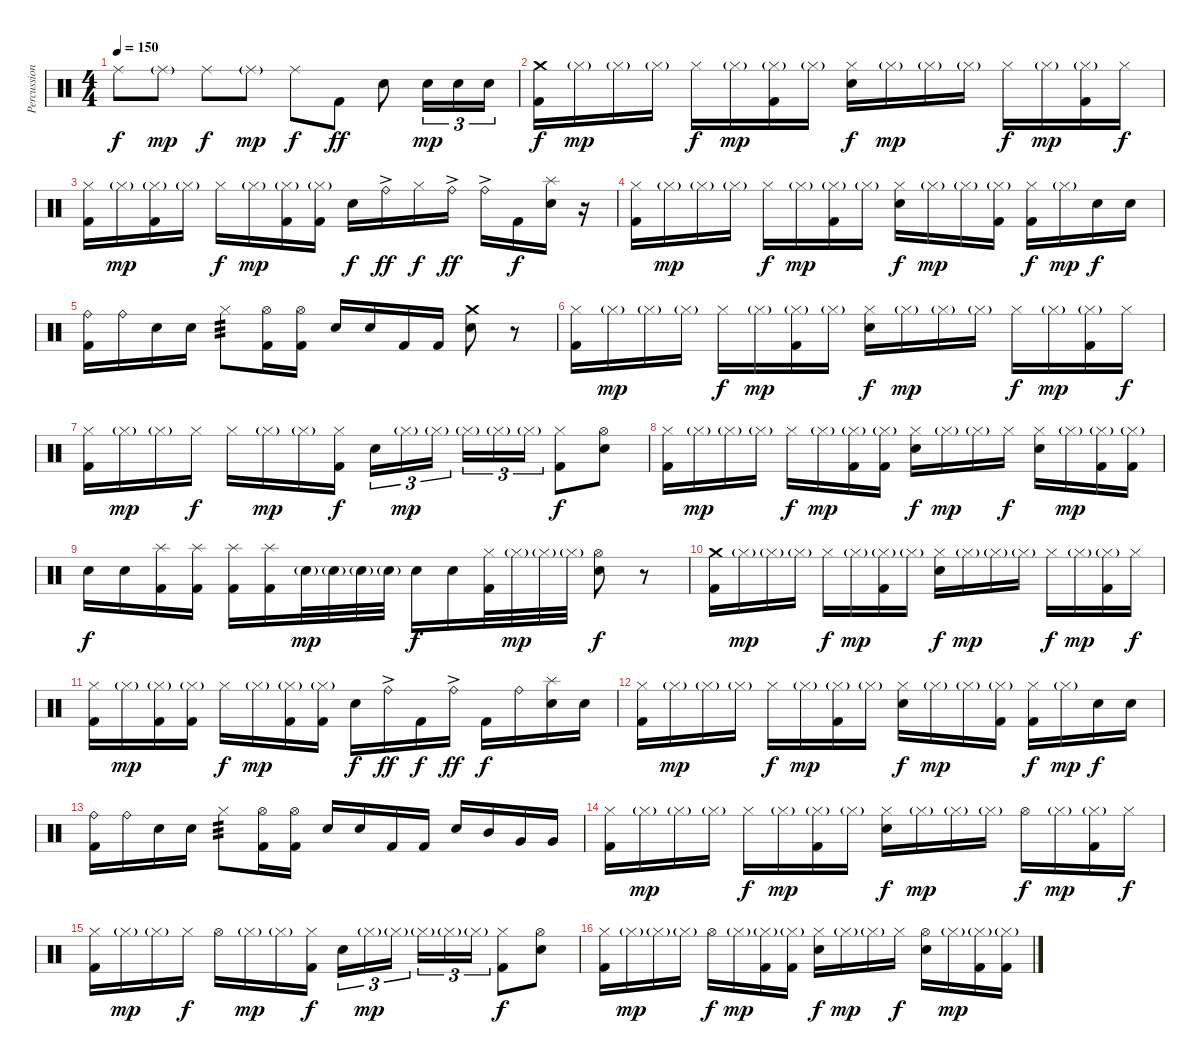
\track ("Percussion" "Percussion") {instrument percussion}
\staff {score}
\articulation defaults
\ts (4 4)
\tempo 150
\clef neutral
\ks c "Ride (middle)".8{dy f} "Ride (middle)"{g}.8{dy mp} "Ride (middle)".8{dy f} "Ride (middle)"{g}.8{dy mp} "Ride (middle)".8{dy f} "Kick (hit) 2".8{dy ff} "Electric Snare (hit)".8 "Electric Snare (hit)".16{tu (3 2) dy mp} "Electric Snare (hit)".16{tu (3 2)} "Electric Snare (hit)".16{tu (3 2)}
|
("Crash medium (hit)" "Kick (hit) 2").16{dy f} "Hi-Hat (closed)"{g}.16{dy mp} "Hi-Hat (closed)"{g}.16 "Hi-Hat (closed)"{g}.16 "Hi-Hat (closed)".16{dy f} "Hi-Hat (closed)"{g}.16{dy mp} ("Hi-Hat (closed)"{g} "Kick (hit) 2").16 "Hi-Hat (closed)"{g}.16 ("Hi-Hat (closed)" "Electric Snare (hit)").16{dy f} "Hi-Hat (closed)"{g}.16{dy mp} "Hi-Hat (closed)"{g}.16 "Hi-Hat (closed)"{g}.16 "Hi-Hat (closed)".16{dy f} "Hi-Hat (closed)"{g}.16{dy mp} ("Hi-Hat (closed)"{g} "Kick (hit) 2").16 "Hi-Hat (closed)".16{dy f} |
("Hi-Hat (closed)" "Kick (hit) 2").16 "Hi-Hat (closed)"{g}.16{dy mp} ("Hi-Hat (closed)"{g} "Kick (hit) 2").16 "Hi-Hat (closed)"{g}.16 "Hi-Hat (closed)".16{dy f} "Hi-Hat (closed)"{g}.16{dy mp} ("Hi-Hat (closed)"{g} "Kick (hit) 2").16 ("Hi-Hat (closed)"{g} "Kick (hit) 2").16 "Electric Snare (hit)".16{dy f} "Ride (bell)"{ac}.16{dy ff} "Hi-Hat (closed)".16{dy f} "Ride (bell)"{ac}.16{dy ff} "Ride (bell)"{ac}.16 "Kick (hit) 2".16{dy f} ("Splash (hit)" "Electric Snare (hit)").16 r.16 |
("Hi-Hat (closed)" "Kick (hit) 2").16 "Hi-Hat (closed)"{g}.16{dy mp} "Hi-Hat (closed)"{g}.16 "Hi-Hat (closed)"{g}.16 "Hi-Hat (closed)".16{dy f} "Hi-Hat (closed)"{g}.16{dy mp} ("Hi-Hat (closed)"{g} "Kick (hit) 2").16 "Hi-Hat (closed)"{g}.16 ("Hi-Hat (closed)" "Electric Snare (hit)").16{dy f} "Hi-Hat (closed)"{g}.16{dy mp} "Hi-Hat (closed)"{g}.16 ("Hi-Hat (closed)"{g} "Kick (hit) 2").16 ("Hi-Hat (closed)" "Kick (hit) 2").16{dy f} "Hi-Hat (closed)"{g}.16{dy mp} "Electric Snare (hit)".16{dy f} "Electric Snare (hit)".16 |
("Ride (bell)" "Kick (hit) 2").16 "Ride (bell)".16 "Electric Snare (hit)".16 "Electric Snare (hit)".16 "Hi-Hat (closed)".8{tp 3} ("Hi-Hat (open)" "Kick (hit) 2").16 ("Hi-Hat (open)" "Kick (hit) 2").16 "Electric Snare (hit)".16 "Electric Snare (hit)".16 "Kick (hit) 2".16 "Kick (hit) 2".16 ("Crash medium (hit)" "Electric Snare (hit)").8 r.8 |
("Hi-Hat (closed)" "Kick (hit) 2").16 "Hi-Hat (closed)"{g}.16{dy mp} "Hi-Hat (closed)"{g}.16 "Hi-Hat (closed)"{g}.16 "Hi-Hat (closed)".16{dy f} "Hi-Hat (closed)"{g}.16{dy mp} ("Hi-Hat (closed)"{g} "Kick (hit) 2").16 "Hi-Hat (closed)"{g}.16 ("Hi-Hat (closed)" "Electric Snare (hit)").16{dy f} "Hi-Hat (closed)"{g}.16{dy mp} "Hi-Hat (closed)"{g}.16 "Hi-Hat (closed)"{g}.16 "Hi-Hat (closed)".16{dy f} "Hi-Hat (closed)"{g}.16{dy mp} ("Hi-Hat (closed)"{g} "Kick (hit) 2").16 "Hi-Hat (closed)".16{dy f} |
("Hi-Hat (closed)" "Kick (hit) 2").16 "Hi-Hat (closed)"{g}.16{dy mp} "Hi-Hat (closed)"{g}.16 "Hi-Hat (closed)".16{dy f} "Hi-Hat (closed)".16 "Hi-Hat (closed)"{g}.16{dy mp} "Hi-Hat (closed)"{g}.16 ("Hi-Hat (closed)" "Kick (hit) 2").16{dy f} "Electric Snare (hit)".16{tu (3 2)} "Hi-Hat (closed)"{g}.16{tu (3 2) dy mp} "Hi-Hat (closed)"{g}.16{tu (3 2) beam splitsecondary} "Hi-Hat (closed)"{g}.16{tu (3 2)} "Hi-Hat (closed)"{g}.16{tu (3 2)} "Hi-Hat (closed)"{g}.16{tu (3 2)} ("Hi-Hat (closed)" "Kick (hit) 2").8{dy f} ("Hi-Hat (open)" "Electric Snare (hit)").8 |
("Hi-Hat (closed)" "Kick (hit) 2").16 "Hi-Hat (closed)"{g}.16{dy mp} "Hi-Hat (closed)"{g}.16 "Hi-Hat (closed)"{g}.16 "Hi-Hat (closed)".16{dy f} "Hi-Hat (closed)"{g}.16{dy mp} ("Hi-Hat (closed)"{g} "Kick (hit) 2").16 ("Hi-Hat (closed)"{g} "Kick (hit) 2").16 ("Hi-Hat (closed)" "Electric Snare (hit)").16{dy f} "Hi-Hat (closed)"{g}.16{dy mp} "Hi-Hat (closed)"{g}.16 "Hi-Hat (closed)".16{dy f} ("Hi-Hat (closed)" "Electric Snare (hit)").16 "Hi-Hat (closed)"{g}.16{dy mp} ("Hi-Hat (closed)"{g} "Kick (hit) 2").16 ("Hi-Hat (closed)"{g} "Kick (hit) 2").16 |
"Electric Snare (hit)".16{dy f} "Electric Snare (hit)".16 ("Splash (hit)" "Kick (hit) 2").16 ("Splash (hit)" "Kick (hit) 2").16 ("Splash (hit)" "Kick (hit) 2").16 ("Splash (hit)" "Kick (hit) 2").16 "Electric Snare (hit)"{g}.32{dy mp} "Electric Snare (hit)"{g}.32 "Electric Snare (hit)"{g}.32 "Electric Snare (hit)"{g}.32 "Electric Snare (hit)".16{dy f} "Electric Snare (hit)".16 ("Hi-Hat (closed)" "Kick (hit) 2").32 "Hi-Hat (closed)"{g}.32{dy mp} "Hi-Hat (closed)"{g}.32 "Hi-Hat (closed)"{g}.32 ("Hi-Hat (open)" "Electric Snare (hit)").8{dy f} r.8 |
("Crash medium (hit)" "Kick (hit) 2").16 "Hi-Hat (closed)"{g}.16{dy mp} "Hi-Hat (closed)"{g}.16 "Hi-Hat (closed)"{g}.16 "Hi-Hat (closed)".16{dy f} "Hi-Hat (closed)"{g}.16{dy mp} ("Hi-Hat (closed)"{g} "Kick (hit) 2").16 "Hi-Hat (closed)"{g}.16 ("Hi-Hat (closed)" "Electric Snare (hit)").16{dy f} "Hi-Hat (closed)"{g}.16{dy mp} "Hi-Hat (closed)"{g}.16 "Hi-Hat (closed)"{g}.16 "Hi-Hat (closed)".16{dy f} "Hi-Hat (closed)"{g}.16{dy mp} ("Hi-Hat (closed)"{g} "Kick (hit) 2").16 "Hi-Hat (closed)".16{dy f} |
("Hi-Hat (closed)" "Kick (hit) 2").16 "Hi-Hat (closed)"{g}.16{dy mp} ("Hi-Hat (closed)"{g} "Kick (hit) 2").16 ("Hi-Hat (closed)"{g} "Kick (hit) 2").16 "Hi-Hat (closed)".16{dy f} "Hi-Hat (closed)"{g}.16{dy mp} ("Hi-Hat (closed)"{g} "Kick (hit) 2").16 ("Hi-Hat (closed)"{g} "Kick (hit) 2").16 "Electric Snare (hit)".16{dy f} "Ride (bell)"{ac}.16{dy ff} "Kick (hit) 2".16{dy f} "Ride (bell)"{ac}.16{dy ff} "Kick (hit) 2".16{dy f} "Ride (bell)".16 ("Splash (hit)" "Electric Snare (hit)").16 "Electric Snare (hit)".16 |
("Hi-Hat (closed)" "Kick (hit) 2").16 "Hi-Hat (closed)"{g}.16{dy mp} "Hi-Hat (closed)"{g}.16 "Hi-Hat (closed)"{g}.16 "Hi-Hat (closed)".16{dy f} "Hi-Hat (closed)"{g}.16{dy mp} ("Hi-Hat (closed)"{g} "Kick (hit) 2").16 "Hi-Hat (closed)"{g}.16 ("Hi-Hat (closed)" "Electric Snare (hit)").16{dy f} "Hi-Hat (closed)"{g}.16{dy mp} "Hi-Hat (closed)"{g}.16 ("Hi-Hat (closed)"{g} "Kick (hit) 2").16 ("Hi-Hat (closed)" "Kick (hit) 2").16{dy f} "Hi-Hat (closed)"{g}.16{dy mp} "Electric Snare (hit)".16{dy f} "Electric Snare (hit)".16 |
("Ride (bell)" "Kick (hit) 2").16 "Ride (bell)".16 "Electric Snare (hit)".16 "Electric Snare (hit)".16 "Hi-Hat (closed)".8{tp 3} ("Hi-Hat (open)" "Kick (hit) 2").16 ("Hi-Hat (open)" "Kick (hit) 2").16 "Electric Snare (hit)".16 "Electric Snare (hit)".16 "Kick (hit) 2".16 "Kick (hit) 2".16 "Electric Snare (hit)".16 "Mid Tom (hit)".16 "Very Low Tom (hit)".16 "Very Low Tom (hit)".16 |
("Hi-Hat (closed)" "Kick (hit) 2").16 "Hi-Hat (closed)"{g}.16{dy mp} "Hi-Hat (closed)"{g}.16 "Hi-Hat (closed)"{g}.16 "Hi-Hat (closed)".16{dy f} "Hi-Hat (closed)"{g}.16{dy mp} ("Hi-Hat (closed)"{g} "Kick (hit) 2").16 "Hi-Hat (closed)"{g}.16 ("Hi-Hat (closed)" "Electric Snare (hit)").16{dy f} "Hi-Hat (closed)"{g}.16{dy mp} "Hi-Hat (closed)"{g}.16 "Hi-Hat (closed)"{g}.16 "Hi-Hat (open)".16{dy f} "Hi-Hat (closed)"{g}.16{dy mp} ("Hi-Hat (closed)"{g} "Kick (hit) 2").16 "Hi-Hat (closed)".16{dy f} |
("Hi-Hat (closed)" "Kick (hit) 2").16 "Hi-Hat (closed)"{g}.16{dy mp} "Hi-Hat (closed)"{g}.16 "Hi-Hat (closed)".16{dy f} "Hi-Hat (open)".16 "Hi-Hat (closed)"{g}.16{dy mp} "Hi-Hat (closed)"{g}.16 ("Hi-Hat (closed)" "Kick (hit) 2").16{dy f} "Electric Snare (hit)".16{tu (3 2)} "Hi-Hat (closed)"{g}.16{tu (3 2) dy mp} "Hi-Hat (closed)"{g}.16{tu (3 2) beam splitsecondary} "Hi-Hat (closed)"{g}.16{tu (3 2)} "Hi-Hat (closed)"{g}.16{tu (3 2)} "Hi-Hat (closed)"{g}.16{tu (3 2)} ("Hi-Hat (closed)" "Kick (hit) 2").8{dy f} ("Hi-Hat (open)" "Electric Snare (hit)").8 |
("Hi-Hat (closed)" "Kick (hit) 2").16 "Hi-Hat (closed)"{g}.16{dy mp} "Hi-Hat (closed)"{g}.16 "Hi-Hat (closed)"{g}.16 "Hi-Hat (open)".16{dy f} "Hi-Hat (closed)"{g}.16{dy mp} ("Hi-Hat (closed)"{g} "Kick (hit) 2").16 ("Hi-Hat (closed)"{g} "Kick (hit) 2").16 ("Hi-Hat (closed)" "Electric Snare (hit)").16{dy f} "Hi-Hat (closed)"{g}.16{dy mp} "Hi-Hat (closed)"{g}.16 "Hi-Hat (closed)".16{dy f} ("Hi-Hat (open)" "Electric Snare (hit)").16 "Hi-Hat (closed)"{g}.16{dy mp} ("Hi-Hat (closed)"{g} "Kick (hit) 2").16 ("Hi-Hat (closed)"{g} "Kick (hit) 2").16
